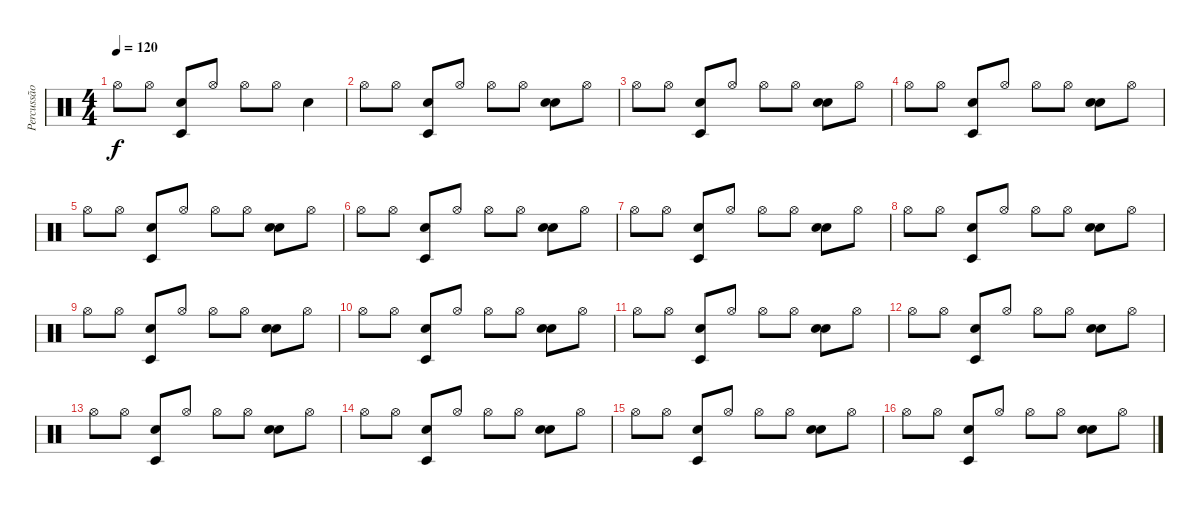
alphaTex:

\track ("Percussão" "Percussão") {instrument percussion}
\staff {score}
\articulation defaults
\ts (4 4)
\tempo 120
\clef neutral
\ks c "Hi-Hat (open)".8{dy f} "Hi-Hat (open)".8
("Timbale low (hit)" "Snare (hit) 2").8 "Hi-Hat (open)".8 "Hi-Hat (open)".8 "Hi-Hat (open)".8 "Hand Clap (hit)".4 |
"Hi-Hat (open)".8 "Hi-Hat (open)".8 ("Timbale low (hit)" "Snare (hit) 2").8 "Hi-Hat (open)".8 "Hi-Hat (open)".8 "Hi-Hat (open)".8 ("Hand Clap (hit)" "Snare (hit) 2").8 "Hi-Hat (open)".8 |
"Hi-Hat (open)".8 "Hi-Hat (open)".8 ("Timbale low (hit)" "Snare (hit) 2").8 "Hi-Hat (open)".8 "Hi-Hat (open)".8 "Hi-Hat (open)".8 ("Hand Clap (hit)" "Snare (hit) 2").8 "Hi-Hat (open)".8 |
"Hi-Hat (open)".8 "Hi-Hat (open)".8 ("Timbale low (hit)" "Snare (hit) 2").8 "Hi-Hat (open)".8 "Hi-Hat (open)".8 "Hi-Hat (open)".8 ("Hand Clap (hit)" "Snare (hit) 2").8 "Hi-Hat (open)".8 |
"Hi-Hat (open)".8 "Hi-Hat (open)".8 ("Timbale low (hit)" "Snare (hit) 2").8 "Hi-Hat (open)".8 "Hi-Hat (open)".8 "Hi-Hat (open)".8 ("Hand Clap (hit)" "Snare (hit) 2").8 "Hi-Hat (open)".8 |
"Hi-Hat (open)".8 "Hi-Hat (open)".8 ("Timbale low (hit)" "Snare (hit) 2").8 "Hi-Hat (open)".8 "Hi-Hat (open)".8 "Hi-Hat (open)".8 ("Hand Clap (hit)" "Snare (hit) 2").8 "Hi-Hat (open)".8 |
"Hi-Hat (open)".8 "Hi-Hat (open)".8 ("Timbale low (hit)" "Snare (hit) 2").8 "Hi-Hat (open)".8 "Hi-Hat (open)".8 "Hi-Hat (open)".8 ("Hand Clap (hit)" "Snare (hit) 2").8 "Hi-Hat (open)".8 |
"Hi-Hat (open)".8 "Hi-Hat (open)".8 ("Timbale low (hit)" "Snare (hit) 2").8 "Hi-Hat (open)".8 "Hi-Hat (open)".8 "Hi-Hat (open)".8 ("Hand Clap (hit)" "Snare (hit) 2").8 "Hi-Hat (open)".8 |
"Hi-Hat (open)".8 "Hi-Hat (open)".8 ("Timbale low (hit)" "Snare (hit) 2").8 "Hi-Hat (open)".8 "Hi-Hat (open)".8 "Hi-Hat (open)".8 ("Hand Clap (hit)" "Snare (hit) 2").8 "Hi-Hat (open)".8 |
"Hi-Hat (open)".8 "Hi-Hat (open)".8 ("Timbale low (hit)" "Snare (hit) 2").8 "Hi-Hat (open)".8 "Hi-Hat (open)".8 "Hi-Hat (open)".8 ("Hand Clap (hit)" "Snare (hit) 2").8 "Hi-Hat (open)".8 |
"Hi-Hat (open)".8 "Hi-Hat (open)".8 ("Timbale low (hit)" "Snare (hit) 2").8 "Hi-Hat (open)".8 "Hi-Hat (open)".8 "Hi-Hat (open)".8 ("Hand Clap (hit)" "Snare (hit) 2").8 "Hi-Hat (open)".8 |
"Hi-Hat (open)".8 "Hi-Hat (open)".8 ("Timbale low (hit)" "Snare (hit) 2").8 "Hi-Hat (open)".8 "Hi-Hat (open)".8 "Hi-Hat (open)".8 ("Hand Clap (hit)" "Snare (hit) 2").8 "Hi-Hat (open)".8 |
"Hi-Hat (open)".8 "Hi-Hat (open)".8 ("Timbale low (hit)" "Snare (hit) 2").8 "Hi-Hat (open)".8 "Hi-Hat (open)".8 "Hi-Hat (open)".8 ("Hand Clap (hit)" "Snare (hit) 2").8 "Hi-Hat (open)".8 |
"Hi-Hat (open)".8 "Hi-Hat (open)".8 ("Timbale low (hit)" "Snare (hit) 2").8 "Hi-Hat (open)".8 "Hi-Hat (open)".8 "Hi-Hat (open)".8 ("Hand Clap (hit)" "Snare (hit) 2").8 "Hi-Hat (open)".8 |
"Hi-Hat (open)".8 "Hi-Hat (open)".8 ("Timbale low (hit)" "Snare (hit) 2").8 "Hi-Hat (open)".8 "Hi-Hat (open)".8 "Hi-Hat (open)".8 ("Hand Clap (hit)" "Snare (hit) 2").8 "Hi-Hat (open)".8 |
"Hi-Hat (open)".8 "Hi-Hat (open)".8 ("Timbale low (hit)" "Snare (hit) 2").8 "Hi-Hat (open)".8 "Hi-Hat (open)".8 "Hi-Hat (open)".8 ("Hand Clap (hit)" "Snare (hit) 2").8 "Hi-Hat (open)".8
